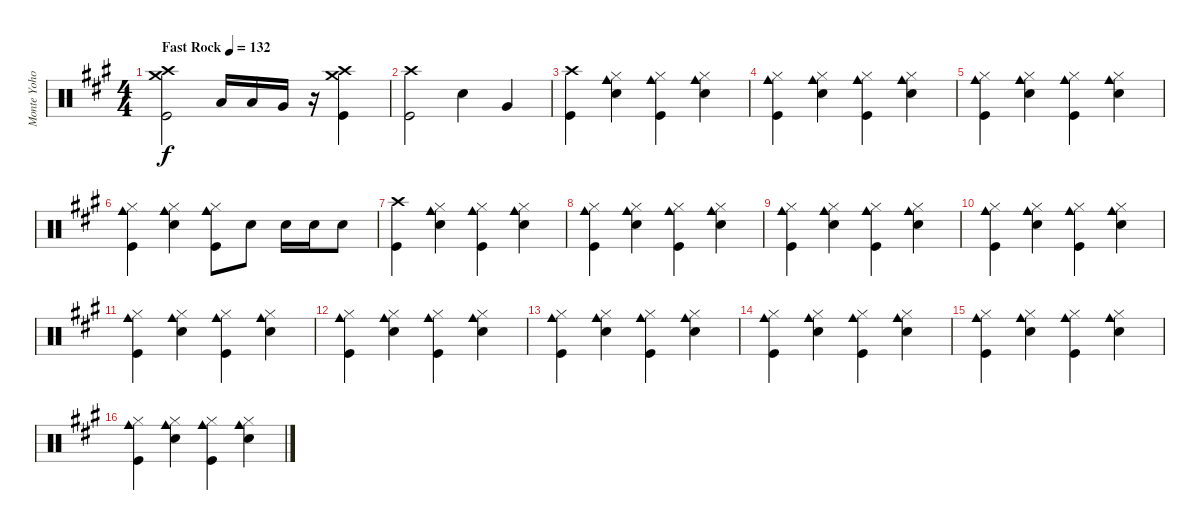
\track ("Monte Yoho Drums" "Monte Yoho") {instrument percussion}
\staff {score}
\articulation defaults
\ts (4 4)
\tempo (132 "Fast Rock")
\clef neutral
\ks a
("Crash high (hit)" "Crash medium (hit)" "Kick (hit)").2{dy f} "Low Tom (hit)".16 "Low Tom (hit)".16 "Very Low Tom (hit)".16 r.16 ("Crash high (hit)" "Crash medium (hit)" "Kick (hit)").4 |
("Crash high (hit)" "Kick (hit)").2 "Snare (hit) 2".4 "Very Low Tom (hit)".4 |
("Crash high (hit)" "Kick (hit)").4 ("Hi-Hat (closed)" "Cowbell medium (hit)" "Snare (hit) 2").4 ("Hi-Hat (closed)" "Cowbell medium (hit)" "Kick (hit)").4 ("Hi-Hat (closed)" "Cowbell medium (hit)" "Snare (hit) 2").4 |
("Hi-Hat (closed)" "Cowbell medium (hit)" "Kick (hit)").4 ("Hi-Hat (closed)" "Cowbell medium (hit)" "Snare (hit) 2").4 ("Hi-Hat (closed)" "Cowbell medium (hit)" "Kick (hit)").4 ("Hi-Hat (closed)" "Cowbell medium (hit)" "Snare (hit) 2").4 |
("Hi-Hat (closed)" "Cowbell medium (hit)" "Kick (hit)").4 ("Hi-Hat (closed)" "Cowbell medium (hit)" "Snare (hit) 2").4 ("Hi-Hat (closed)" "Cowbell medium (hit)" "Kick (hit)").4 ("Hi-Hat (closed)" "Cowbell medium (hit)" "Snare (hit) 2").4 |
("Hi-Hat (closed)" "Cowbell medium (hit)" "Kick (hit)").4 ("Hi-Hat (closed)" "Cowbell medium (hit)" "Snare (hit) 2").4 ("Hi-Hat (closed)" "Cowbell medium (hit)" "Kick (hit)").8 "Snare (hit) 2".8 "Snare (hit) 2".16 "Snare (hit) 2".16 "Snare (hit) 2".8 |
("Crash high (hit)" "Kick (hit)").4 ("Hi-Hat (closed)" "Cowbell medium (hit)" "Snare (hit) 2").4 ("Hi-Hat (closed)" "Cowbell medium (hit)" "Kick (hit)").4 ("Hi-Hat (closed)" "Cowbell medium (hit)" "Snare (hit) 2").4 |
("Hi-Hat (closed)" "Cowbell medium (hit)" "Kick (hit)").4 ("Hi-Hat (closed)" "Cowbell medium (hit)" "Snare (hit) 2").4 ("Hi-Hat (closed)" "Cowbell medium (hit)" "Kick (hit)").4 ("Hi-Hat (closed)" "Cowbell medium (hit)" "Snare (hit) 2").4 |
("Hi-Hat (closed)" "Cowbell medium (hit)" "Kick (hit)").4 ("Hi-Hat (closed)" "Cowbell medium (hit)" "Snare (hit) 2").4 ("Hi-Hat (closed)" "Cowbell medium (hit)" "Kick (hit)").4 ("Hi-Hat (closed)" "Cowbell medium (hit)" "Snare (hit) 2").4 |
("Hi-Hat (closed)" "Cowbell medium (hit)" "Kick (hit)").4 ("Hi-Hat (closed)" "Cowbell medium (hit)" "Snare (hit) 2").4 ("Hi-Hat (closed)" "Cowbell medium (hit)" "Kick (hit)").4 ("Hi-Hat (closed)" "Cowbell medium (hit)" "Snare (hit) 2").4 |
("Hi-Hat (closed)" "Cowbell medium (hit)" "Kick (hit)").4 ("Hi-Hat (closed)" "Cowbell medium (hit)" "Snare (hit) 2").4 ("Hi-Hat (closed)" "Cowbell medium (hit)" "Kick (hit)").4 ("Hi-Hat (closed)" "Cowbell medium (hit)" "Snare (hit) 2").4 |
("Hi-Hat (closed)" "Cowbell medium (hit)" "Kick (hit)").4 ("Hi-Hat (closed)" "Cowbell medium (hit)" "Snare (hit) 2").4 ("Hi-Hat (closed)" "Cowbell medium (hit)" "Kick (hit)").4 ("Hi-Hat (closed)" "Cowbell medium (hit)" "Snare (hit) 2").4 |
("Hi-Hat (closed)" "Cowbell medium (hit)" "Kick (hit)").4 ("Hi-Hat (closed)" "Cowbell medium (hit)" "Snare (hit) 2").4 ("Hi-Hat (closed)" "Cowbell medium (hit)" "Kick (hit)").4 ("Hi-Hat (closed)" "Cowbell medium (hit)" "Snare (hit) 2").4 |
("Hi-Hat (closed)" "Cowbell medium (hit)" "Kick (hit)").4 ("Hi-Hat (closed)" "Cowbell medium (hit)" "Snare (hit) 2").4 ("Hi-Hat (closed)" "Cowbell medium (hit)" "Kick (hit)").4 ("Hi-Hat (closed)" "Cowbell medium (hit)" "Snare (hit) 2").4 |
("Hi-Hat (closed)" "Cowbell medium (hit)" "Kick (hit)").4 ("Hi-Hat (closed)" "Cowbell medium (hit)" "Snare (hit) 2").4 ("Hi-Hat (closed)" "Cowbell medium (hit)" "Kick (hit)").4 ("Hi-Hat (closed)" "Cowbell medium (hit)" "Snare (hit) 2").4 |
("Hi-Hat (closed)" "Cowbell medium (hit)" "Kick (hit)").4 ("Hi-Hat (closed)" "Cowbell medium (hit)" "Snare (hit) 2").4 ("Hi-Hat (closed)" "Cowbell medium (hit)" "Kick (hit)").4 ("Hi-Hat (closed)" "Cowbell medium (hit)" "Snare (hit) 2").4
